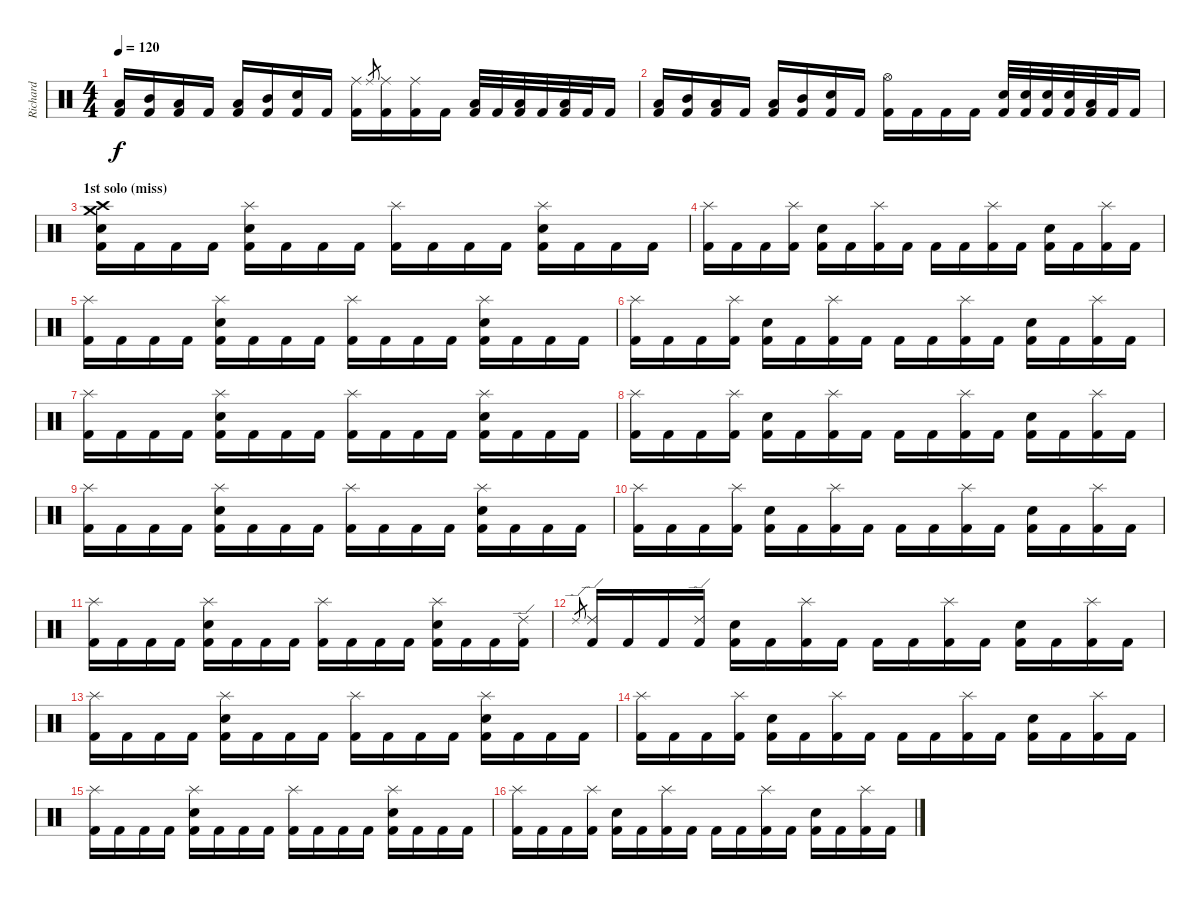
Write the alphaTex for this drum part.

\track ("Richard " "Richard ") {instrument percussion}
\staff {score}
\articulation defaults
\ts (4 4)
\tempo 120
\clef neutral
\ks c
("Low Tom (hit)" "Kick (hit) 2").16{dy f} ("Mid Tom (hit)" "Kick (hit) 2").16 ("Low Tom (hit)" "Kick (hit) 2").16 "Kick (hit) 2".16 ("Low Tom (hit)" "Kick (hit) 2").16 ("Mid Tom (hit)" "Kick (hit) 2").16 ("Snare (hit) 2" "Kick (hit) 2").16 "Kick (hit) 2".16 ("Ride (middle)" "Kick (hit) 2").16 "Ride (middle)".8{gr} ("Ride (middle)" "Kick (hit) 2").16 ("Ride (middle)" "Kick (hit) 2").16 "Kick (hit) 2".16 ("Low Tom (hit)" "Kick (hit) 2").32 "Kick (hit) 2".32 ("Low Tom (hit)" "Kick (hit) 2").32 "Kick (hit) 2".32 ("Low Tom (hit)" "Kick (hit) 2").32 "Kick (hit) 2".32 "Kick (hit) 2".16 |
("Low Tom (hit)" "Kick (hit) 2").16 ("Mid Tom (hit)" "Kick (hit) 2").16 ("Low Tom (hit)" "Kick (hit) 2").16 "Kick (hit) 2".16 ("Low Tom (hit)" "Kick (hit) 2").16 ("Mid Tom (hit)" "Kick (hit) 2").16 ("Snare (hit) 2" "Kick (hit) 2").16 "Kick (hit) 2".16 ("Hi-Hat (open)" "Kick (hit) 2").16 "Kick (hit) 2".16 "Kick (hit) 2".16 "Kick (hit) 2".16 ("Electric Snare (hit)" "Kick (hit) 2").32 ("Electric Snare (hit)" "Kick (hit) 2").32 ("Snare (hit) 2" "Kick (hit) 2").32 ("Snare (hit) 2" "Kick (hit) 2").32 ("Low Tom (hit)" "Kick (hit) 2").32 "Kick (hit) 2".32 "Kick (hit) 2".16 |
\section ("" "1st solo (miss)")
("Crash high (hit)" "Crash medium (hit)" "Snare (hit) 2" "Kick (hit) 2").16 "Kick (hit) 2".16 "Kick (hit) 2".16 "Kick (hit) 2".16 ("Splash (hit)" "Snare (hit) 2" "Kick (hit) 2").16 "Kick (hit) 2".16 "Kick (hit) 2".16 "Kick (hit) 2".16 ("Splash (hit)" "Kick (hit) 2").16 "Kick (hit) 2".16 "Kick (hit) 2".16 "Kick (hit) 2".16 ("Splash (hit)" "Snare (hit) 2" "Kick (hit) 2").16 "Kick (hit) 2".16 "Kick (hit) 2".16 "Kick (hit) 2".16 |
("Splash (hit)" "Kick (hit) 2").16 "Kick (hit) 2".16 "Kick (hit) 2".16 ("Splash (hit)" "Kick (hit) 2").16 ("Snare (hit) 2" "Kick (hit) 2").16 "Kick (hit) 2".16 ("Splash (hit)" "Kick (hit) 2").16 "Kick (hit) 2".16 "Kick (hit) 2".16 "Kick (hit) 2".16 ("Splash (hit)" "Kick (hit) 2").16 "Kick (hit) 2".16 ("Snare (hit) 2" "Kick (hit) 2").16 "Kick (hit) 2".16 ("Splash (hit)" "Kick (hit) 2").16 "Kick (hit) 2".16 |
("Splash (hit)" "Kick (hit) 2").16 "Kick (hit) 2".16 "Kick (hit) 2".16 "Kick (hit) 2".16 ("Splash (hit)" "Snare (hit) 2" "Kick (hit) 2").16 "Kick (hit) 2".16 "Kick (hit) 2".16 "Kick (hit) 2".16 ("Splash (hit)" "Kick (hit) 2").16 "Kick (hit) 2".16 "Kick (hit) 2".16 "Kick (hit) 2".16 ("Splash (hit)" "Snare (hit) 2" "Kick (hit) 2").16 "Kick (hit) 2".16 "Kick (hit) 2".16 "Kick (hit) 2".16 |
("Splash (hit)" "Kick (hit) 2").16 "Kick (hit) 2".16 "Kick (hit) 2".16 ("Splash (hit)" "Kick (hit) 2").16 ("Snare (hit) 2" "Kick (hit) 2").16 "Kick (hit) 2".16 ("Splash (hit)" "Kick (hit) 2").16 "Kick (hit) 2".16 "Kick (hit) 2".16 "Kick (hit) 2".16 ("Splash (hit)" "Kick (hit) 2").16 "Kick (hit) 2".16 ("Snare (hit) 2" "Kick (hit) 2").16 "Kick (hit) 2".16 ("Splash (hit)" "Kick (hit) 2").16 "Kick (hit) 2".16 |
("Splash (hit)" "Kick (hit) 2").16 "Kick (hit) 2".16 "Kick (hit) 2".16 "Kick (hit) 2".16 ("Splash (hit)" "Snare (hit) 2" "Kick (hit) 2").16 "Kick (hit) 2".16 "Kick (hit) 2".16 "Kick (hit) 2".16 ("Splash (hit)" "Kick (hit) 2").16 "Kick (hit) 2".16 "Kick (hit) 2".16 "Kick (hit) 2".16 ("Splash (hit)" "Snare (hit) 2" "Kick (hit) 2").16 "Kick (hit) 2".16 "Kick (hit) 2".16 "Kick (hit) 2".16 |
("Splash (hit)" "Kick (hit) 2").16 "Kick (hit) 2".16 "Kick (hit) 2".16 ("Splash (hit)" "Kick (hit) 2").16 ("Snare (hit) 2" "Kick (hit) 2").16 "Kick (hit) 2".16 ("Splash (hit)" "Kick (hit) 2").16 "Kick (hit) 2".16 "Kick (hit) 2".16 "Kick (hit) 2".16 ("Splash (hit)" "Kick (hit) 2").16 "Kick (hit) 2".16 ("Snare (hit) 2" "Kick (hit) 2").16 "Kick (hit) 2".16 ("Splash (hit)" "Kick (hit) 2").16 "Kick (hit) 2".16 |
("Splash (hit)" "Kick (hit) 2").16 "Kick (hit) 2".16 "Kick (hit) 2".16 "Kick (hit) 2".16 ("Splash (hit)" "Snare (hit) 2" "Kick (hit) 2").16 "Kick (hit) 2".16 "Kick (hit) 2".16 "Kick (hit) 2".16 ("Splash (hit)" "Kick (hit) 2").16 "Kick (hit) 2".16 "Kick (hit) 2".16 "Kick (hit) 2".16 ("Splash (hit)" "Snare (hit) 2" "Kick (hit) 2").16 "Kick (hit) 2".16 "Kick (hit) 2".16 "Kick (hit) 2".16 |
("Splash (hit)" "Kick (hit) 2").16 "Kick (hit) 2".16 "Kick (hit) 2".16 ("Splash (hit)" "Kick (hit) 2").16 ("Snare (hit) 2" "Kick (hit) 2").16 "Kick (hit) 2".16 ("Splash (hit)" "Kick (hit) 2").16 "Kick (hit) 2".16 "Kick (hit) 2".16 "Kick (hit) 2".16 ("Splash (hit)" "Kick (hit) 2").16 "Kick (hit) 2".16 ("Snare (hit) 2" "Kick (hit) 2").16 "Kick (hit) 2".16 ("Splash (hit)" "Kick (hit) 2").16 "Kick (hit) 2".16 |
("Splash (hit)" "Kick (hit) 2").16 "Kick (hit) 2".16 "Kick (hit) 2".16 "Kick (hit) 2".16 ("Splash (hit)" "Snare (hit) 2" "Kick (hit) 2").16 "Kick (hit) 2".16 "Kick (hit) 2".16 "Kick (hit) 2".16 ("Splash (hit)" "Kick (hit) 2").16 "Kick (hit) 2".16 "Kick (hit) 2".16 "Kick (hit) 2".16 ("Splash (hit)" "Snare (hit) 2" "Kick (hit) 2").16 "Kick (hit) 2".16 "Kick (hit) 2".16 ("Ride (edge) 2" "Kick (hit) 2").16 |
"Ride (edge) 2".8{gr} ("Ride (edge) 2" "Kick (hit) 2").16 "Kick (hit) 2".16 "Kick (hit) 2".16 ("Ride (edge) 2" "Kick (hit) 2").16 ("Snare (hit) 2" "Kick (hit) 2").16 "Kick (hit) 2".16 ("Splash (hit)" "Kick (hit) 2").16 "Kick (hit) 2".16 "Kick (hit) 2".16 "Kick (hit) 2".16 ("Splash (hit)" "Kick (hit) 2").16 "Kick (hit) 2".16 ("Snare (hit) 2" "Kick (hit) 2").16 "Kick (hit) 2".16 ("Splash (hit)" "Kick (hit) 2").16 "Kick (hit) 2".16 |
("Splash (hit)" "Kick (hit) 2").16 "Kick (hit) 2".16 "Kick (hit) 2".16 "Kick (hit) 2".16 ("Splash (hit)" "Snare (hit) 2" "Kick (hit) 2").16 "Kick (hit) 2".16 "Kick (hit) 2".16 "Kick (hit) 2".16 ("Splash (hit)" "Kick (hit) 2").16 "Kick (hit) 2".16 "Kick (hit) 2".16 "Kick (hit) 2".16 ("Splash (hit)" "Snare (hit) 2" "Kick (hit) 2").16 "Kick (hit) 2".16 "Kick (hit) 2".16 "Kick (hit) 2".16 |
("Splash (hit)" "Kick (hit) 2").16 "Kick (hit) 2".16 "Kick (hit) 2".16 ("Splash (hit)" "Kick (hit) 2").16 ("Snare (hit) 2" "Kick (hit) 2").16 "Kick (hit) 2".16 ("Splash (hit)" "Kick (hit) 2").16 "Kick (hit) 2".16 "Kick (hit) 2".16 "Kick (hit) 2".16 ("Splash (hit)" "Kick (hit) 2").16 "Kick (hit) 2".16 ("Snare (hit) 2" "Kick (hit) 2").16 "Kick (hit) 2".16 ("Splash (hit)" "Kick (hit) 2").16 "Kick (hit) 2".16 |
("Splash (hit)" "Kick (hit) 2").16 "Kick (hit) 2".16 "Kick (hit) 2".16 "Kick (hit) 2".16 ("Splash (hit)" "Snare (hit) 2" "Kick (hit) 2").16 "Kick (hit) 2".16 "Kick (hit) 2".16 "Kick (hit) 2".16 ("Splash (hit)" "Kick (hit) 2").16 "Kick (hit) 2".16 "Kick (hit) 2".16 "Kick (hit) 2".16 ("Splash (hit)" "Snare (hit) 2" "Kick (hit) 2").16 "Kick (hit) 2".16 "Kick (hit) 2".16 "Kick (hit) 2".16 |
("Splash (hit)" "Kick (hit) 2").16 "Kick (hit) 2".16 "Kick (hit) 2".16 ("Splash (hit)" "Kick (hit) 2").16 ("Snare (hit) 2" "Kick (hit) 2").16 "Kick (hit) 2".16 ("Splash (hit)" "Kick (hit) 2").16 "Kick (hit) 2".16 "Kick (hit) 2".16 "Kick (hit) 2".16 ("Splash (hit)" "Kick (hit) 2").16 "Kick (hit) 2".16 ("Snare (hit) 2" "Kick (hit) 2").16 "Kick (hit) 2".16 ("Splash (hit)" "Kick (hit) 2").16 "Kick (hit) 2".16
